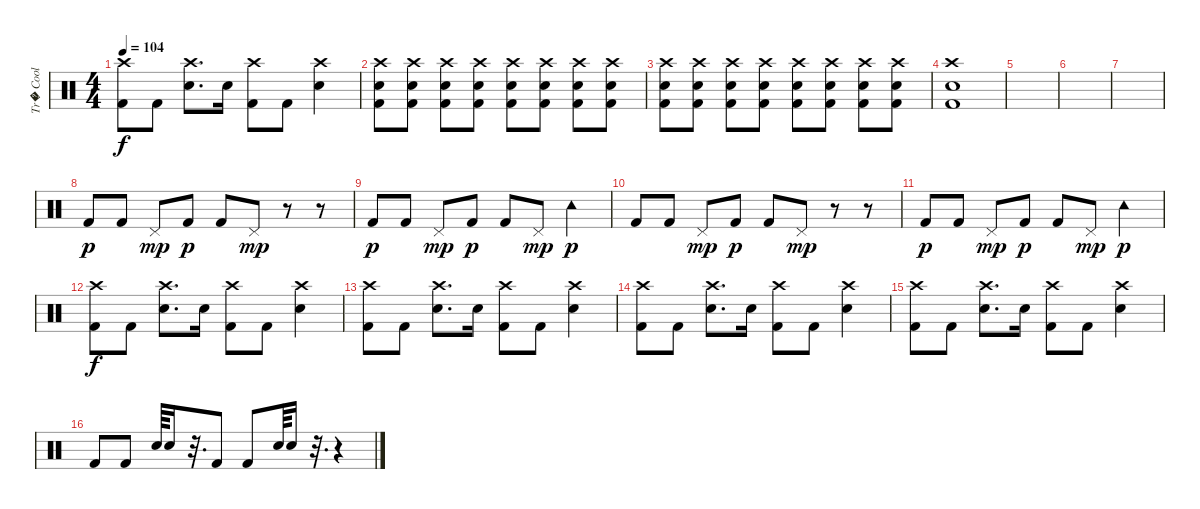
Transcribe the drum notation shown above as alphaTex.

\track ("Tr� Cool" "Tr� Cool") {instrument percussion}
\staff {score}
\articulation defaults
\ts (4 4)
\tempo 104
\clef neutral
\ks c
("Crash high (hit)" "Kick (hit) 2").8{dy f} "Kick (hit) 2".8 ("Crash high (hit)" "Electric Snare (hit)").8{d} "Electric Snare (hit)".16 ("Crash high (hit)" "Kick (hit) 2").8 "Kick (hit) 2".8 ("Crash high (hit)" "Electric Snare (hit)").4 |
("Crash high (hit)" "Electric Snare (hit)" "Kick (hit) 2").8 ("Crash high (hit)" "Electric Snare (hit)" "Kick (hit) 2").8 ("Crash high (hit)" "Electric Snare (hit)" "Kick (hit) 2").8 ("Crash high (hit)" "Electric Snare (hit)" "Kick (hit) 2").8 ("Crash high (hit)" "Electric Snare (hit)" "Kick (hit) 2").8 ("Crash high (hit)" "Electric Snare (hit)" "Kick (hit) 2").8 ("Crash high (hit)" "Electric Snare (hit)" "Kick (hit) 2").8 ("Crash high (hit)" "Electric Snare (hit)" "Kick (hit) 2").8 |
("Crash high (hit)" "Electric Snare (hit)" "Kick (hit) 2").8 ("Crash high (hit)" "Electric Snare (hit)" "Kick (hit) 2").8 ("Crash high (hit)" "Electric Snare (hit)" "Kick (hit) 2").8 ("Crash high (hit)" "Electric Snare (hit)" "Kick (hit) 2").8 ("Crash high (hit)" "Electric Snare (hit)" "Kick (hit) 2").8 ("Crash high (hit)" "Electric Snare (hit)" "Kick (hit) 2").8 ("Crash high (hit)" "Electric Snare (hit)" "Kick (hit) 2").8 ("Crash high (hit)" "Electric Snare (hit)" "Kick (hit) 2").8 |
("Crash high (hit)" "Electric Snare (hit)" "Kick (hit) 2").1 |
|
|
|
"Kick (hit) 2".8{dy p} "Kick (hit) 2".8 "Pedal Hi-Hat (hit)".8{dy mp} "Kick (hit) 2".8{dy p} "Kick (hit) 2".8 "Pedal Hi-Hat (hit)".8{dy mp} r.8 r.8 |
"Kick (hit) 2".8{dy p} "Kick (hit) 2".8 "Pedal Hi-Hat (hit)".8{dy mp} "Kick (hit) 2".8{dy p} "Kick (hit) 2".8 "Pedal Hi-Hat (hit)".8{dy mp} "Tambourine (hit)".4{dy p} |
"Kick (hit) 2".8 "Kick (hit) 2".8 "Pedal Hi-Hat (hit)".8{dy mp} "Kick (hit) 2".8{dy p} "Kick (hit) 2".8 "Pedal Hi-Hat (hit)".8{dy mp} r.8 r.8 |
"Kick (hit) 2".8{dy p} "Kick (hit) 2".8 "Pedal Hi-Hat (hit)".8{dy mp} "Kick (hit) 2".8{dy p} "Kick (hit) 2".8 "Pedal Hi-Hat (hit)".8{dy mp} "Tambourine (hit)".4{dy p} |
("Crash high (hit)" "Kick (hit) 2").8{dy f} "Kick (hit) 2".8 ("Crash high (hit)" "Electric Snare (hit)").8{d} "Electric Snare (hit)".16 ("Crash high (hit)" "Kick (hit) 2").8 "Kick (hit) 2".8 ("Crash high (hit)" "Electric Snare (hit)").4 |
("Crash high (hit)" "Kick (hit) 2").8 "Kick (hit) 2".8 ("Crash high (hit)" "Electric Snare (hit)").8{d} "Electric Snare (hit)".16 ("Crash high (hit)" "Kick (hit) 2").8 "Kick (hit) 2".8 ("Crash high (hit)" "Electric Snare (hit)").4 |
("Crash high (hit)" "Kick (hit) 2").8 "Kick (hit) 2".8 ("Crash high (hit)" "Electric Snare (hit)").8{d} "Electric Snare (hit)".16 ("Crash high (hit)" "Kick (hit) 2").8 "Kick (hit) 2".8 ("Crash high (hit)" "Electric Snare (hit)").4 |
("Crash high (hit)" "Kick (hit) 2").8 "Kick (hit) 2".8 ("Crash high (hit)" "Electric Snare (hit)").8{d} "Electric Snare (hit)".16 ("Crash high (hit)" "Kick (hit) 2").8 "Kick (hit) 2".8 ("Crash high (hit)" "Electric Snare (hit)").4 |
"Kick (hit) 2".8{volume 13} "Kick (hit) 2".8 "Electric Snare (hit)".64 "Electric Snare (hit)".16 r.32{d} "Kick (hit) 2".8 "Kick (hit) 2".8 "Electric Snare (hit)".64 "Electric Snare (hit)".16 r.32{d} r.4
